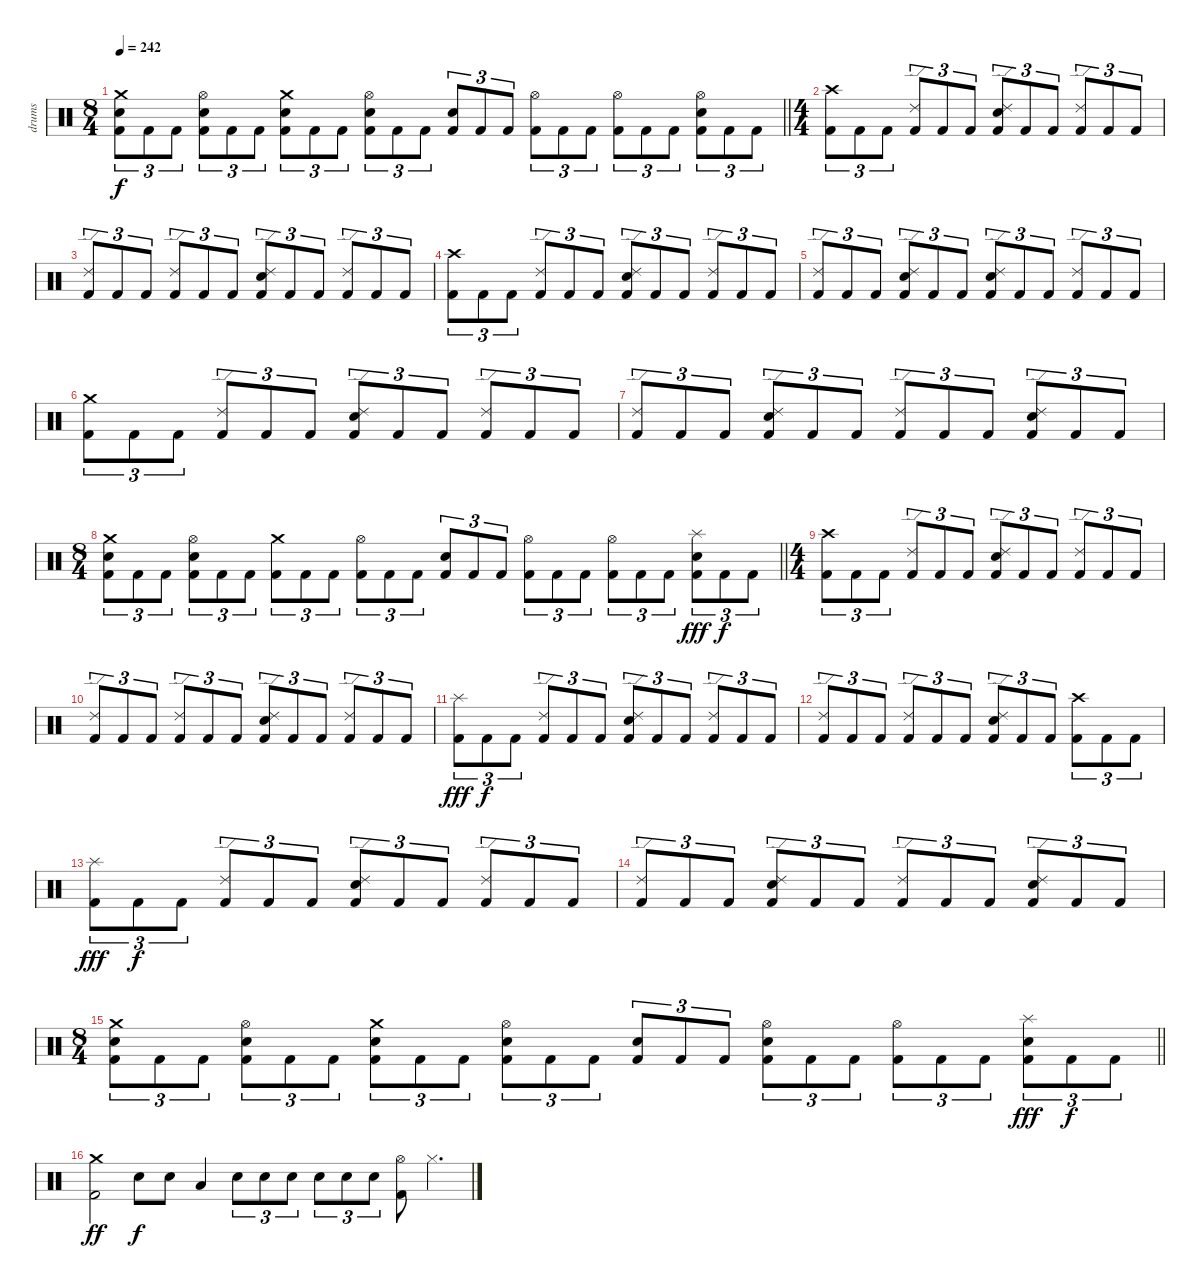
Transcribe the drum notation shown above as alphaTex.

\track ("drums" "drums") {instrument percussion}
\staff {score}
\articulation defaults
\ts (8 4)
\tempo 242
\clef neutral
\barLineRight lightlight
\ks c
("Crash medium (hit)" "Electric Snare (hit)" "Kick (hit) 2").8{tu (3 2) dy f} "Kick (hit) 2".8{tu (3 2)} "Kick (hit) 2".8{tu (3 2)} ("Hi-Hat (open)" "Electric Snare (hit)" "Kick (hit) 2").8{tu (3 2)} "Kick (hit) 2".8{tu (3 2)} "Kick (hit) 2".8{tu (3 2)} ("Crash medium (hit)" "Electric Snare (hit)" "Kick (hit) 2").8{tu (3 2)} "Kick (hit) 2".8{tu (3 2)} "Kick (hit) 2".8{tu (3 2)} ("Hi-Hat (open)" "Electric Snare (hit)" "Kick (hit) 2").8{tu (3 2)} "Kick (hit) 2".8{tu (3 2)} "Kick (hit) 2".8{tu (3 2)} ("Electric Snare (hit)" "Kick (hit) 2").8{tu (3 2)} "Kick (hit) 2".8{tu (3 2)} "Kick (hit) 2".8{tu (3 2)} ("Hi-Hat (open)" "Kick (hit) 2").8{tu (3 2)} "Kick (hit) 2".8{tu (3 2)} "Kick (hit) 2".8{tu (3 2)} ("Hi-Hat (open)" "Kick (hit) 2").8{tu (3 2)} "Kick (hit) 2".8{tu (3 2)} "Kick (hit) 2".8{tu (3 2)} ("Hi-Hat (open)" "Electric Snare (hit)" "Kick (hit) 2").8{tu (3 2)} "Kick (hit) 2".8{tu (3 2)} "Kick (hit) 2".8{tu (3 2)} |
\ts (4 4)
("Crash high (hit)" "Kick (hit) 2").8{tu (3 2)} "Kick (hit) 2".8{tu (3 2)} "Kick (hit) 2".8{tu (3 2)} ("Ride (edge) 2" "Kick (hit) 2").8{tu (3 2)} "Kick (hit) 2".8{tu (3 2)} "Kick (hit) 2".8{tu (3 2)} ("Ride (edge) 2" "Electric Snare (hit)" "Kick (hit) 2").8{tu (3 2)} "Kick (hit) 2".8{tu (3 2)} "Kick (hit) 2".8{tu (3 2)} ("Ride (edge) 2" "Kick (hit) 2").8{tu (3 2)} "Kick (hit) 2".8{tu (3 2)} "Kick (hit) 2".8{tu (3 2)} |
("Ride (edge) 2" "Kick (hit) 2").8{tu (3 2)} "Kick (hit) 2".8{tu (3 2)} "Kick (hit) 2".8{tu (3 2)} ("Ride (edge) 2" "Kick (hit) 2").8{tu (3 2)} "Kick (hit) 2".8{tu (3 2)} "Kick (hit) 2".8{tu (3 2)} ("Ride (edge) 2" "Electric Snare (hit)" "Kick (hit) 2").8{tu (3 2)} "Kick (hit) 2".8{tu (3 2)} "Kick (hit) 2".8{tu (3 2)} ("Ride (edge) 2" "Kick (hit) 2").8{tu (3 2)} "Kick (hit) 2".8{tu (3 2)} "Kick (hit) 2".8{tu (3 2)} |
("Crash high (hit)" "Kick (hit) 2").8{tu (3 2)} "Kick (hit) 2".8{tu (3 2)} "Kick (hit) 2".8{tu (3 2)} ("Ride (edge) 2" "Kick (hit) 2").8{tu (3 2)} "Kick (hit) 2".8{tu (3 2)} "Kick (hit) 2".8{tu (3 2)} ("Ride (edge) 2" "Electric Snare (hit)" "Kick (hit) 2").8{tu (3 2)} "Kick (hit) 2".8{tu (3 2)} "Kick (hit) 2".8{tu (3 2)} ("Ride (edge) 2" "Kick (hit) 2").8{tu (3 2)} "Kick (hit) 2".8{tu (3 2)} "Kick (hit) 2".8{tu (3 2)} |
("Ride (edge) 2" "Kick (hit) 2").8{tu (3 2)} "Kick (hit) 2".8{tu (3 2)} "Kick (hit) 2".8{tu (3 2)} ("Ride (edge) 2" "Electric Snare (hit)" "Kick (hit) 2").8{tu (3 2)} "Kick (hit) 2".8{tu (3 2)} "Kick (hit) 2".8{tu (3 2)} ("Ride (edge) 2" "Electric Snare (hit)" "Kick (hit) 2").8{tu (3 2)} "Kick (hit) 2".8{tu (3 2)} "Kick (hit) 2".8{tu (3 2)} ("Ride (edge) 2" "Kick (hit) 2").8{tu (3 2)} "Kick (hit) 2".8{tu (3 2)} "Kick (hit) 2".8{tu (3 2)} |
("Crash medium (hit)" "Kick (hit) 2").8{tu (3 2)} "Kick (hit) 2".8{tu (3 2)} "Kick (hit) 2".8{tu (3 2)} ("Ride (edge) 2" "Kick (hit) 2").8{tu (3 2)} "Kick (hit) 2".8{tu (3 2)} "Kick (hit) 2".8{tu (3 2)} ("Ride (edge) 2" "Electric Snare (hit)" "Kick (hit) 2").8{tu (3 2)} "Kick (hit) 2".8{tu (3 2)} "Kick (hit) 2".8{tu (3 2)} ("Ride (edge) 2" "Kick (hit) 2").8{tu (3 2)} "Kick (hit) 2".8{tu (3 2)} "Kick (hit) 2".8{tu (3 2)} |
("Ride (edge) 2" "Kick (hit) 2").8{tu (3 2)} "Kick (hit) 2".8{tu (3 2)} "Kick (hit) 2".8{tu (3 2)} ("Ride (edge) 2" "Electric Snare (hit)" "Kick (hit) 2").8{tu (3 2)} "Kick (hit) 2".8{tu (3 2)} "Kick (hit) 2".8{tu (3 2)} ("Ride (edge) 2" "Kick (hit) 2").8{tu (3 2)} "Kick (hit) 2".8{tu (3 2)} "Kick (hit) 2".8{tu (3 2)} ("Ride (edge) 2" "Electric Snare (hit)" "Kick (hit) 2").8{tu (3 2)} "Kick (hit) 2".8{tu (3 2)} "Kick (hit) 2".8{tu (3 2)} |
\ts (8 4)
\barLineRight lightlight
("Crash medium (hit)" "Electric Snare (hit)" "Kick (hit) 2").8{tu (3 2)} "Kick (hit) 2".8{tu (3 2)} "Kick (hit) 2".8{tu (3 2)} ("Hi-Hat (open)" "Electric Snare (hit)" "Kick (hit) 2").8{tu (3 2)} "Kick (hit) 2".8{tu (3 2)} "Kick (hit) 2".8{tu (3 2)} ("Crash medium (hit)" "Kick (hit) 2").8{tu (3 2)} "Kick (hit) 2".8{tu (3 2)} "Kick (hit) 2".8{tu (3 2)} ("Hi-Hat (open)" "Kick (hit) 2").8{tu (3 2)} "Kick (hit) 2".8{tu (3 2)} "Kick (hit) 2".8{tu (3 2)} ("Electric Snare (hit)" "Kick (hit) 2").8{tu (3 2)} "Kick (hit) 2".8{tu (3 2)} "Kick (hit) 2".8{tu (3 2)} ("Hi-Hat (open)" "Kick (hit) 2").8{tu (3 2)} "Kick (hit) 2".8{tu (3 2)} "Kick (hit) 2".8{tu (3 2)} ("Hi-Hat (open)" "Kick (hit) 2").8{tu (3 2)} "Kick (hit) 2".8{tu (3 2)} "Kick (hit) 2".8{tu (3 2)} ("Splash (hit)" "Electric Snare (hit)" "Kick (hit) 2").8{tu (3 2) dy fff} "Kick (hit) 2".8{tu (3 2) dy f} "Kick (hit) 2".8{tu (3 2)} |
\ts (4 4)
("Crash high (hit)" "Kick (hit) 2").8{tu (3 2)} "Kick (hit) 2".8{tu (3 2)} "Kick (hit) 2".8{tu (3 2)} ("Ride (edge) 2" "Kick (hit) 2").8{tu (3 2)} "Kick (hit) 2".8{tu (3 2)} "Kick (hit) 2".8{tu (3 2)} ("Ride (edge) 2" "Electric Snare (hit)" "Kick (hit) 2").8{tu (3 2)} "Kick (hit) 2".8{tu (3 2)} "Kick (hit) 2".8{tu (3 2)} ("Ride (edge) 2" "Kick (hit) 2").8{tu (3 2)} "Kick (hit) 2".8{tu (3 2)} "Kick (hit) 2".8{tu (3 2)} |
("Ride (edge) 2" "Kick (hit) 2").8{tu (3 2)} "Kick (hit) 2".8{tu (3 2)} "Kick (hit) 2".8{tu (3 2)} ("Ride (edge) 2" "Kick (hit) 2").8{tu (3 2)} "Kick (hit) 2".8{tu (3 2)} "Kick (hit) 2".8{tu (3 2)} ("Ride (edge) 2" "Electric Snare (hit)" "Kick (hit) 2").8{tu (3 2)} "Kick (hit) 2".8{tu (3 2)} "Kick (hit) 2".8{tu (3 2)} ("Ride (edge) 2" "Kick (hit) 2").8{tu (3 2)} "Kick (hit) 2".8{tu (3 2)} "Kick (hit) 2".8{tu (3 2)} |
("Splash (hit)" "Kick (hit) 2").8{tu (3 2) dy fff} "Kick (hit) 2".8{tu (3 2) dy f} "Kick (hit) 2".8{tu (3 2)} ("Ride (edge) 2" "Kick (hit) 2").8{tu (3 2)} "Kick (hit) 2".8{tu (3 2)} "Kick (hit) 2".8{tu (3 2)} ("Ride (edge) 2" "Electric Snare (hit)" "Kick (hit) 2").8{tu (3 2)} "Kick (hit) 2".8{tu (3 2)} "Kick (hit) 2".8{tu (3 2)} ("Ride (edge) 2" "Kick (hit) 2").8{tu (3 2)} "Kick (hit) 2".8{tu (3 2)} "Kick (hit) 2".8{tu (3 2)} |
("Ride (edge) 2" "Kick (hit) 2").8{tu (3 2)} "Kick (hit) 2".8{tu (3 2)} "Kick (hit) 2".8{tu (3 2)} ("Ride (edge) 2" "Kick (hit) 2").8{tu (3 2)} "Kick (hit) 2".8{tu (3 2)} "Kick (hit) 2".8{tu (3 2)} ("Ride (edge) 2" "Electric Snare (hit)" "Kick (hit) 2").8{tu (3 2)} "Kick (hit) 2".8{tu (3 2)} "Kick (hit) 2".8{tu (3 2)} ("Crash high (hit)" "Kick (hit) 2").8{tu (3 2)} "Kick (hit) 2".8{tu (3 2)} "Kick (hit) 2".8{tu (3 2)} |
("Splash (hit)" "Kick (hit) 2").8{tu (3 2) dy fff} "Kick (hit) 2".8{tu (3 2) dy f} "Kick (hit) 2".8{tu (3 2)} ("Ride (edge) 2" "Kick (hit) 2").8{tu (3 2)} "Kick (hit) 2".8{tu (3 2)} "Kick (hit) 2".8{tu (3 2)} ("Ride (edge) 2" "Electric Snare (hit)" "Kick (hit) 2").8{tu (3 2)} "Kick (hit) 2".8{tu (3 2)} "Kick (hit) 2".8{tu (3 2)} ("Ride (edge) 2" "Kick (hit) 2").8{tu (3 2)} "Kick (hit) 2".8{tu (3 2)} "Kick (hit) 2".8{tu (3 2)} |
("Ride (edge) 2" "Kick (hit) 2").8{tu (3 2)} "Kick (hit) 2".8{tu (3 2)} "Kick (hit) 2".8{tu (3 2)} ("Ride (edge) 2" "Electric Snare (hit)" "Kick (hit) 2").8{tu (3 2)} "Kick (hit) 2".8{tu (3 2)} "Kick (hit) 2".8{tu (3 2)} ("Ride (edge) 2" "Kick (hit) 2").8{tu (3 2)} "Kick (hit) 2".8{tu (3 2)} "Kick (hit) 2".8{tu (3 2)} ("Ride (edge) 2" "Electric Snare (hit)" "Kick (hit) 2").8{tu (3 2)} "Kick (hit) 2".8{tu (3 2)} "Kick (hit) 2".8{tu (3 2)} |
\ts (8 4)
\barLineRight lightlight
("Crash medium (hit)" "Electric Snare (hit)" "Kick (hit) 2").8{tu (3 2)} "Kick (hit) 2".8{tu (3 2)} "Kick (hit) 2".8{tu (3 2)} ("Hi-Hat (open)" "Electric Snare (hit)" "Kick (hit) 2").8{tu (3 2)} "Kick (hit) 2".8{tu (3 2)} "Kick (hit) 2".8{tu (3 2)} ("Crash medium (hit)" "Electric Snare (hit)" "Kick (hit) 2").8{tu (3 2)} "Kick (hit) 2".8{tu (3 2)} "Kick (hit) 2".8{tu (3 2)} ("Hi-Hat (open)" "Electric Snare (hit)" "Kick (hit) 2").8{tu (3 2)} "Kick (hit) 2".8{tu (3 2)} "Kick (hit) 2".8{tu (3 2)} ("Electric Snare (hit)" "Kick (hit) 2").8{tu (3 2)} "Kick (hit) 2".8{tu (3 2)} "Kick (hit) 2".8{tu (3 2)} ("Hi-Hat (open)" "Electric Snare (hit)" "Kick (hit) 2").8{tu (3 2)} "Kick (hit) 2".8{tu (3 2)} "Kick (hit) 2".8{tu (3 2)} ("Hi-Hat (open)" "Kick (hit) 2").8{tu (3 2)} "Kick (hit) 2".8{tu (3 2)} "Kick (hit) 2".8{tu (3 2)} ("Splash (hit)" "Electric Snare (hit)" "Kick (hit) 2").8{tu (3 2) dy fff} "Kick (hit) 2".8{tu (3 2) dy f} "Kick (hit) 2".8{tu (3 2)} |
("Crash medium (hit)" "Kick (hit) 2").2{dy ff} "Electric Snare (hit)".8{dy f} "Electric Snare (hit)".8 "Low Tom (hit)".4 "Electric Snare (hit)".8{tu (3 2)} "Electric Snare (hit)".8{tu (3 2)} "Electric Snare (hit)".8{tu (3 2)} "Electric Snare (hit)".8{tu (3 2)} "Electric Snare (hit)".8{tu (3 2)} "Electric Snare (hit)".8{tu (3 2)} ("Hi-Hat (open)" "Kick (hit) 2").8 "Hi-Hat (closed)".4{d}
